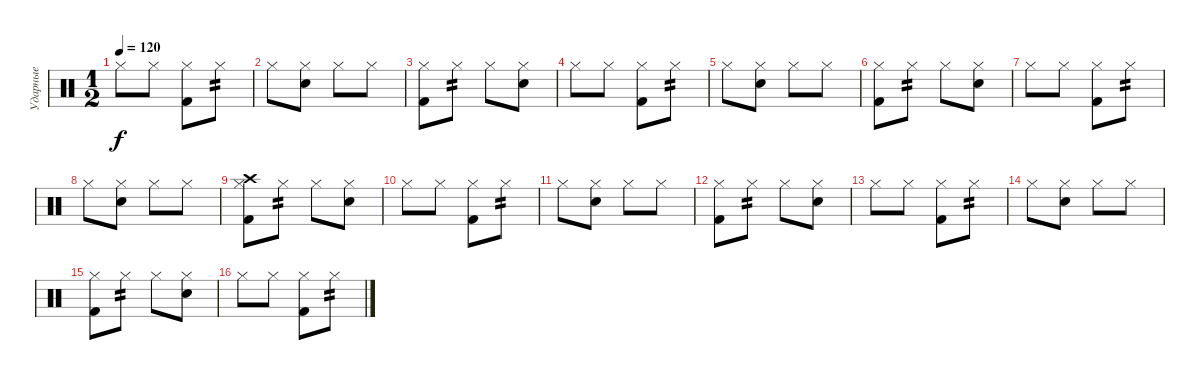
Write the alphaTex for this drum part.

\track ("Ударные" "Ударные") {instrument percussion}
\staff {score}
\articulation defaults
\ts (1 2)
\tempo 120
\clef neutral
\ks c "Hi-Hat (closed)".8{dy f} "Hi-Hat (closed)".8
("Hi-Hat (closed)" "Kick (hit) 2").8 "Hi-Hat (closed)".8{tp 2} |
"Hi-Hat (closed)".8 ("Hi-Hat (closed)" "Snare (hit) 2").8 "Hi-Hat (closed)".8 "Hi-Hat (closed)".8 |
("Hi-Hat (closed)" "Kick (hit) 2").8 "Hi-Hat (closed)".8{tp 2} "Hi-Hat (closed)".8 ("Hi-Hat (closed)" "Snare (hit) 2").8 |
"Hi-Hat (closed)".8 "Hi-Hat (closed)".8 ("Hi-Hat (closed)" "Kick (hit) 2").8 "Hi-Hat (closed)".8{tp 2} |
"Hi-Hat (closed)".8 ("Hi-Hat (closed)" "Snare (hit) 2").8 "Hi-Hat (closed)".8 "Hi-Hat (closed)".8 |
("Hi-Hat (closed)" "Kick (hit) 2").8 "Hi-Hat (closed)".8{tp 2} "Hi-Hat (closed)".8 ("Hi-Hat (closed)" "Snare (hit) 2").8 |
"Hi-Hat (closed)".8 "Hi-Hat (closed)".8 ("Hi-Hat (closed)" "Kick (hit) 2").8 "Hi-Hat (closed)".8{tp 2} |
"Hi-Hat (closed)".8 ("Hi-Hat (closed)" "Snare (hit) 2").8 "Hi-Hat (closed)".8 "Hi-Hat (closed)".8 |
("Crash high (hit)" "Hi-Hat (closed)" "Kick (hit) 2").8 "Hi-Hat (closed)".8{tp 2} "Hi-Hat (closed)".8 ("Hi-Hat (closed)" "Snare (hit) 2").8 |
"Hi-Hat (closed)".8 "Hi-Hat (closed)".8 ("Hi-Hat (closed)" "Kick (hit) 2").8 "Hi-Hat (closed)".8{tp 2} |
"Hi-Hat (closed)".8 ("Hi-Hat (closed)" "Snare (hit) 2").8 "Hi-Hat (closed)".8 "Hi-Hat (closed)".8 |
("Hi-Hat (closed)" "Kick (hit) 2").8 "Hi-Hat (closed)".8{tp 2} "Hi-Hat (closed)".8 ("Hi-Hat (closed)" "Snare (hit) 2").8 |
"Hi-Hat (closed)".8 "Hi-Hat (closed)".8 ("Hi-Hat (closed)" "Kick (hit) 2").8 "Hi-Hat (closed)".8{tp 2} |
"Hi-Hat (closed)".8 ("Hi-Hat (closed)" "Snare (hit) 2").8 "Hi-Hat (closed)".8 "Hi-Hat (closed)".8 |
("Hi-Hat (closed)" "Kick (hit) 2").8 "Hi-Hat (closed)".8{tp 2} "Hi-Hat (closed)".8 ("Hi-Hat (closed)" "Snare (hit) 2").8 |
"Hi-Hat (closed)".8 "Hi-Hat (closed)".8 ("Hi-Hat (closed)" "Kick (hit) 2").8 "Hi-Hat (closed)".8{tp 2}
